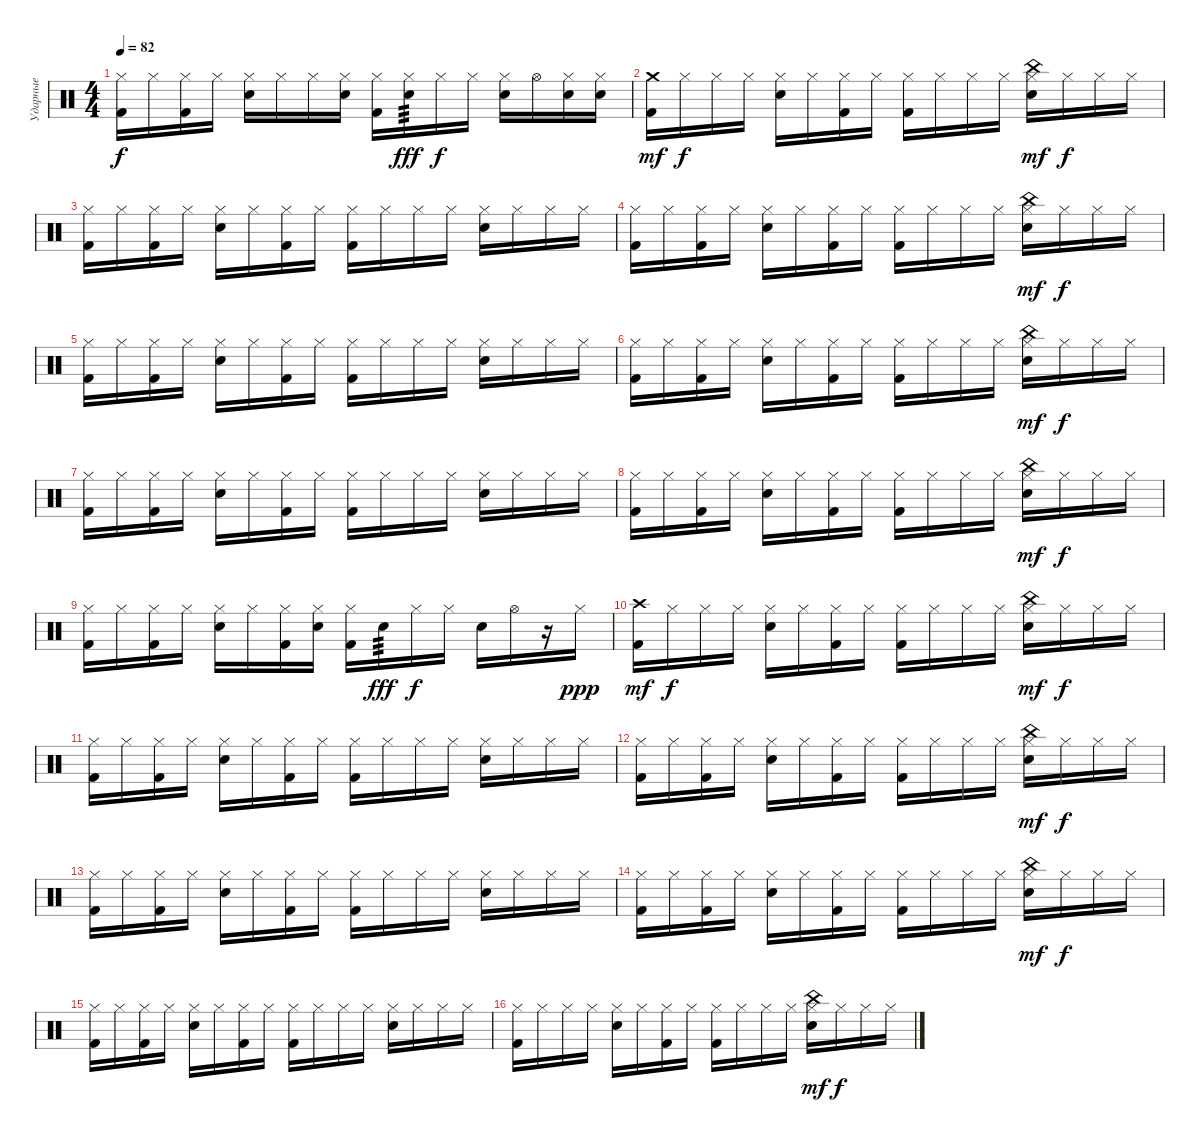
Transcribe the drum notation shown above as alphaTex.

\track ("Ударные" "Ударные") {instrument percussion}
\staff {score}
\articulation defaults
\ts (4 4)
\tempo 82
\clef neutral
\ks c
("Hi-Hat (closed)" "Kick (hit) 2").16{dy f} "Hi-Hat (closed)".16 ("Hi-Hat (closed)" "Kick (hit) 2").16 "Hi-Hat (closed)".16 ("Hi-Hat (closed)" "Electric Snare (hit)").16 "Hi-Hat (closed)".16 "Hi-Hat (closed)".16 ("Hi-Hat (closed)" "Electric Snare (hit)").16 ("Hi-Hat (closed)" "Kick (hit) 2").16 ("Hi-Hat (closed)" "Electric Snare (hit)").16{tp 3 dy fff} "Hi-Hat (closed)".16{dy f} "Hi-Hat (closed)".16 ("Hi-Hat (closed)" "Electric Snare (hit)").16 "Hi-Hat (open)".16 ("Hi-Hat (closed)" "Electric Snare (hit)").16 ("Hi-Hat (closed)" "Electric Snare (hit)").16 |
("Crash medium (hit)" "Kick (hit) 2").16{dy mf} "Hi-Hat (closed)".16{dy f} "Hi-Hat (closed)".16 "Hi-Hat (closed)".16 ("Hi-Hat (closed)" "Electric Snare (hit)").16 "Hi-Hat (closed)".16 ("Hi-Hat (closed)" "Kick (hit) 2").16 "Hi-Hat (closed)".16 ("Hi-Hat (closed)" "Kick (hit) 2").16 "Hi-Hat (closed)".16 "Hi-Hat (closed)".16 "Hi-Hat (closed)".16 ("Hi-Hat (closed)" "Electric Snare (hit)" "China (hit)").16{dy mf} "Hi-Hat (closed)".16{dy f} "Hi-Hat (closed)".16 "Hi-Hat (closed)".16 |
("Hi-Hat (closed)" "Kick (hit) 2").16 "Hi-Hat (closed)".16 ("Hi-Hat (closed)" "Kick (hit) 2").16 "Hi-Hat (closed)".16 ("Hi-Hat (closed)" "Electric Snare (hit)").16 "Hi-Hat (closed)".16 ("Hi-Hat (closed)" "Kick (hit) 2").16 "Hi-Hat (closed)".16 ("Hi-Hat (closed)" "Kick (hit) 2").16 "Hi-Hat (closed)".16 "Hi-Hat (closed)".16 "Hi-Hat (closed)".16 ("Hi-Hat (closed)" "Electric Snare (hit)").16 "Hi-Hat (closed)".16 "Hi-Hat (closed)".16 "Hi-Hat (closed)".16 |
("Hi-Hat (closed)" "Kick (hit) 2").16 "Hi-Hat (closed)".16 ("Hi-Hat (closed)" "Kick (hit) 2").16 "Hi-Hat (closed)".16 ("Hi-Hat (closed)" "Electric Snare (hit)").16 "Hi-Hat (closed)".16 ("Hi-Hat (closed)" "Kick (hit) 2").16 "Hi-Hat (closed)".16 ("Hi-Hat (closed)" "Kick (hit) 2").16 "Hi-Hat (closed)".16 "Hi-Hat (closed)".16 "Hi-Hat (closed)".16 ("Hi-Hat (closed)" "China (hit)" "Electric Snare (hit)").16{dy mf} "Hi-Hat (closed)".16{dy f} "Hi-Hat (closed)".16 "Hi-Hat (closed)".16 |
("Hi-Hat (closed)" "Kick (hit) 2").16 "Hi-Hat (closed)".16 ("Hi-Hat (closed)" "Kick (hit) 2").16 "Hi-Hat (closed)".16 ("Hi-Hat (closed)" "Electric Snare (hit)").16 "Hi-Hat (closed)".16 ("Hi-Hat (closed)" "Kick (hit) 2").16 "Hi-Hat (closed)".16 ("Hi-Hat (closed)" "Kick (hit) 2").16 "Hi-Hat (closed)".16 "Hi-Hat (closed)".16 "Hi-Hat (closed)".16 ("Hi-Hat (closed)" "Electric Snare (hit)").16 "Hi-Hat (closed)".16 "Hi-Hat (closed)".16 "Hi-Hat (closed)".16 |
("Hi-Hat (closed)" "Kick (hit) 2").16 "Hi-Hat (closed)".16 ("Hi-Hat (closed)" "Kick (hit) 2").16 "Hi-Hat (closed)".16 ("Hi-Hat (closed)" "Electric Snare (hit)").16 "Hi-Hat (closed)".16 ("Hi-Hat (closed)" "Kick (hit) 2").16 "Hi-Hat (closed)".16 ("Hi-Hat (closed)" "Kick (hit) 2").16 "Hi-Hat (closed)".16 "Hi-Hat (closed)".16 "Hi-Hat (closed)".16 ("Hi-Hat (closed)" "China (hit)" "Electric Snare (hit)").16{dy mf} "Hi-Hat (closed)".16{dy f} "Hi-Hat (closed)".16 "Hi-Hat (closed)".16 |
("Hi-Hat (closed)" "Kick (hit) 2").16 "Hi-Hat (closed)".16 ("Hi-Hat (closed)" "Kick (hit) 2").16 "Hi-Hat (closed)".16 ("Hi-Hat (closed)" "Electric Snare (hit)").16 "Hi-Hat (closed)".16 ("Hi-Hat (closed)" "Kick (hit) 2").16 "Hi-Hat (closed)".16 ("Hi-Hat (closed)" "Kick (hit) 2").16 "Hi-Hat (closed)".16 "Hi-Hat (closed)".16 "Hi-Hat (closed)".16 ("Hi-Hat (closed)" "Electric Snare (hit)").16 "Hi-Hat (closed)".16 "Hi-Hat (closed)".16 "Hi-Hat (closed)".16 |
("Hi-Hat (closed)" "Kick (hit) 2").16 "Hi-Hat (closed)".16 ("Hi-Hat (closed)" "Kick (hit) 2").16 "Hi-Hat (closed)".16 ("Hi-Hat (closed)" "Electric Snare (hit)").16 "Hi-Hat (closed)".16 ("Hi-Hat (closed)" "Kick (hit) 2").16 "Hi-Hat (closed)".16 ("Hi-Hat (closed)" "Kick (hit) 2").16 "Hi-Hat (closed)".16 "Hi-Hat (closed)".16 "Hi-Hat (closed)".16 ("Hi-Hat (closed)" "China (hit)" "Electric Snare (hit)").16{dy mf} "Hi-Hat (closed)".16{dy f} "Hi-Hat (closed)".16 "Hi-Hat (closed)".16 |
("Hi-Hat (closed)" "Kick (hit) 2").16 "Hi-Hat (closed)".16 ("Hi-Hat (closed)" "Kick (hit) 2").16 "Hi-Hat (closed)".16 ("Hi-Hat (closed)" "Electric Snare (hit)").16 "Hi-Hat (closed)".16 ("Hi-Hat (closed)" "Kick (hit) 2").16 ("Hi-Hat (closed)" "Electric Snare (hit)").16 ("Hi-Hat (closed)" "Kick (hit) 2").16 "Electric Snare (hit)".16{tp 3 dy fff} "Hi-Hat (closed)".16{dy f} "Hi-Hat (closed)".16 "Electric Snare (hit)".16 "Hi-Hat (open)".16 r.16 "Hi-Hat (closed)".16{dy ppp} |
("Crash high (hit)" "Kick (hit) 2").16{dy mf} "Hi-Hat (closed)".16{dy f} "Hi-Hat (closed)".16 "Hi-Hat (closed)".16 ("Hi-Hat (closed)" "Electric Snare (hit)").16 "Hi-Hat (closed)".16 ("Hi-Hat (closed)" "Kick (hit) 2").16 "Hi-Hat (closed)".16 ("Hi-Hat (closed)" "Kick (hit) 2").16 "Hi-Hat (closed)".16 "Hi-Hat (closed)".16 "Hi-Hat (closed)".16 ("Hi-Hat (closed)" "China (hit)" "Electric Snare (hit)").16{dy mf} "Hi-Hat (closed)".16{dy f} "Hi-Hat (closed)".16 "Hi-Hat (closed)".16 |
("Hi-Hat (closed)" "Kick (hit) 2").16 "Hi-Hat (closed)".16 ("Hi-Hat (closed)" "Kick (hit) 2").16 "Hi-Hat (closed)".16 ("Hi-Hat (closed)" "Electric Snare (hit)").16 "Hi-Hat (closed)".16 ("Hi-Hat (closed)" "Kick (hit) 2").16 "Hi-Hat (closed)".16 ("Hi-Hat (closed)" "Kick (hit) 2").16 "Hi-Hat (closed)".16 "Hi-Hat (closed)".16 "Hi-Hat (closed)".16 ("Hi-Hat (closed)" "Electric Snare (hit)").16 "Hi-Hat (closed)".16 "Hi-Hat (closed)".16 "Hi-Hat (closed)".16 |
("Hi-Hat (closed)" "Kick (hit) 2").16 "Hi-Hat (closed)".16 ("Hi-Hat (closed)" "Kick (hit) 2").16 "Hi-Hat (closed)".16 ("Hi-Hat (closed)" "Electric Snare (hit)").16 "Hi-Hat (closed)".16 ("Hi-Hat (closed)" "Kick (hit) 2").16 "Hi-Hat (closed)".16 ("Hi-Hat (closed)" "Kick (hit) 2").16 "Hi-Hat (closed)".16 "Hi-Hat (closed)".16 "Hi-Hat (closed)".16 ("Hi-Hat (closed)" "China (hit)" "Electric Snare (hit)").16{dy mf} "Hi-Hat (closed)".16{dy f} "Hi-Hat (closed)".16 "Hi-Hat (closed)".16 |
("Hi-Hat (closed)" "Kick (hit) 2").16 "Hi-Hat (closed)".16 ("Hi-Hat (closed)" "Kick (hit) 2").16 "Hi-Hat (closed)".16 ("Hi-Hat (closed)" "Electric Snare (hit)").16 "Hi-Hat (closed)".16 ("Hi-Hat (closed)" "Kick (hit) 2").16 "Hi-Hat (closed)".16 ("Hi-Hat (closed)" "Kick (hit) 2").16 "Hi-Hat (closed)".16 "Hi-Hat (closed)".16 "Hi-Hat (closed)".16 ("Hi-Hat (closed)" "Electric Snare (hit)").16 "Hi-Hat (closed)".16 "Hi-Hat (closed)".16 "Hi-Hat (closed)".16 |
("Hi-Hat (closed)" "Kick (hit) 2").16 "Hi-Hat (closed)".16 ("Hi-Hat (closed)" "Kick (hit) 2").16 "Hi-Hat (closed)".16 ("Hi-Hat (closed)" "Electric Snare (hit)").16 "Hi-Hat (closed)".16 ("Hi-Hat (closed)" "Kick (hit) 2").16 "Hi-Hat (closed)".16 ("Hi-Hat (closed)" "Kick (hit) 2").16 "Hi-Hat (closed)".16 "Hi-Hat (closed)".16 "Hi-Hat (closed)".16 ("Hi-Hat (closed)" "China (hit)" "Electric Snare (hit)").16{dy mf} "Hi-Hat (closed)".16{dy f} "Hi-Hat (closed)".16 "Hi-Hat (closed)".16 |
("Hi-Hat (closed)" "Kick (hit) 2").16 "Hi-Hat (closed)".16 ("Hi-Hat (closed)" "Kick (hit) 2").16 "Hi-Hat (closed)".16 ("Hi-Hat (closed)" "Electric Snare (hit)").16 "Hi-Hat (closed)".16 ("Hi-Hat (closed)" "Kick (hit) 2").16 "Hi-Hat (closed)".16 ("Hi-Hat (closed)" "Kick (hit) 2").16 "Hi-Hat (closed)".16 "Hi-Hat (closed)".16 "Hi-Hat (closed)".16 ("Hi-Hat (closed)" "Electric Snare (hit)").16 "Hi-Hat (closed)".16 "Hi-Hat (closed)".16 "Hi-Hat (closed)".16 |
("Hi-Hat (closed)" "Kick (hit) 2").16 "Hi-Hat (closed)".16 "Hi-Hat (closed)".16 "Hi-Hat (closed)".16 ("Hi-Hat (closed)" "Electric Snare (hit)").16 "Hi-Hat (closed)".16 ("Hi-Hat (closed)" "Kick (hit) 2").16 "Hi-Hat (closed)".16 ("Hi-Hat (closed)" "Kick (hit) 2").16 "Hi-Hat (closed)".16 "Hi-Hat (closed)".16 "Hi-Hat (closed)".16 ("Hi-Hat (closed)" "China (hit)" "Electric Snare (hit)").16{dy mf} "Hi-Hat (closed)".16{dy f} "Hi-Hat (closed)".16 "Hi-Hat (closed)".16
